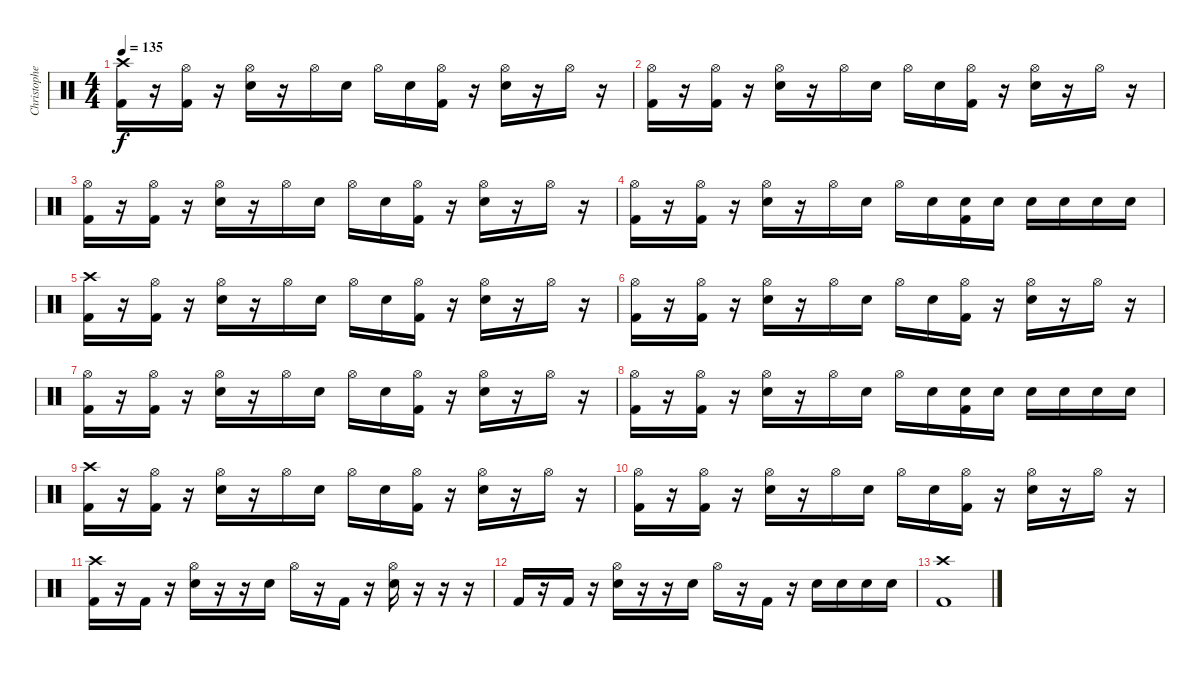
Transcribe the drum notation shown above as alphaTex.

\track ("Christopher - Drums" "Christophe") {instrument percussion}
\staff {score}
\articulation defaults
\ts (4 4)
\tempo 135
\clef neutral
\ks c
("Crash high (hit)" "Kick (hit) 2").16{dy f} r.16 ("Hi-Hat (open)" "Kick (hit) 2").16 r.16 ("Hi-Hat (open)" "Electric Snare (hit)").16 r.16 "Hi-Hat (open)".16 "Electric Snare (hit)".16 "Hi-Hat (open)".16 "Electric Snare (hit)".16 ("Hi-Hat (open)" "Kick (hit) 2").16 r.16 ("Hi-Hat (open)" "Electric Snare (hit)").16 r.16 "Hi-Hat (open)".16 r.16 |
("Hi-Hat (open)" "Kick (hit) 2").16 r.16 ("Hi-Hat (open)" "Kick (hit) 2").16 r.16 ("Hi-Hat (open)" "Electric Snare (hit)").16 r.16 "Hi-Hat (open)".16 "Electric Snare (hit)".16 "Hi-Hat (open)".16 "Electric Snare (hit)".16 ("Hi-Hat (open)" "Kick (hit) 2").16 r.16 ("Hi-Hat (open)" "Electric Snare (hit)").16 r.16 "Hi-Hat (open)".16 r.16 |
("Hi-Hat (open)" "Kick (hit) 2").16 r.16 ("Hi-Hat (open)" "Kick (hit) 2").16 r.16 ("Hi-Hat (open)" "Electric Snare (hit)").16 r.16 "Hi-Hat (open)".16 "Electric Snare (hit)".16 "Hi-Hat (open)".16 "Electric Snare (hit)".16 ("Hi-Hat (open)" "Kick (hit) 2").16 r.16 ("Hi-Hat (open)" "Electric Snare (hit)").16 r.16 "Hi-Hat (open)".16 r.16 |
("Hi-Hat (open)" "Kick (hit) 2").16 r.16 ("Hi-Hat (open)" "Kick (hit) 2").16 r.16 ("Hi-Hat (open)" "Electric Snare (hit)").16 r.16 "Hi-Hat (open)".16 "Electric Snare (hit)".16 "Hi-Hat (open)".16 "Electric Snare (hit)".16 ("Electric Snare (hit)" "Kick (hit) 2").16 "Electric Snare (hit)".16 "Electric Snare (hit)".16 "Electric Snare (hit)".16 "Electric Snare (hit)".16 "Electric Snare (hit)".16 |
("Crash high (hit)" "Kick (hit) 2").16 r.16 ("Hi-Hat (open)" "Kick (hit) 2").16 r.16 ("Hi-Hat (open)" "Electric Snare (hit)").16 r.16 "Hi-Hat (open)".16 "Electric Snare (hit)".16 "Hi-Hat (open)".16 "Electric Snare (hit)".16 ("Hi-Hat (open)" "Kick (hit) 2").16 r.16 ("Hi-Hat (open)" "Electric Snare (hit)").16 r.16 "Hi-Hat (open)".16 r.16 |
("Hi-Hat (open)" "Kick (hit) 2").16 r.16 ("Hi-Hat (open)" "Kick (hit) 2").16 r.16 ("Hi-Hat (open)" "Electric Snare (hit)").16 r.16 "Hi-Hat (open)".16 "Electric Snare (hit)".16 "Hi-Hat (open)".16 "Electric Snare (hit)".16 ("Hi-Hat (open)" "Kick (hit) 2").16 r.16 ("Hi-Hat (open)" "Electric Snare (hit)").16 r.16 "Hi-Hat (open)".16 r.16 |
("Hi-Hat (open)" "Kick (hit) 2").16 r.16 ("Hi-Hat (open)" "Kick (hit) 2").16 r.16 ("Hi-Hat (open)" "Electric Snare (hit)").16 r.16 "Hi-Hat (open)".16 "Electric Snare (hit)".16 "Hi-Hat (open)".16 "Electric Snare (hit)".16 ("Hi-Hat (open)" "Kick (hit) 2").16 r.16 ("Hi-Hat (open)" "Electric Snare (hit)").16 r.16 "Hi-Hat (open)".16 r.16 |
("Hi-Hat (open)" "Kick (hit) 2").16 r.16 ("Hi-Hat (open)" "Kick (hit) 2").16 r.16 ("Hi-Hat (open)" "Electric Snare (hit)").16 r.16 "Hi-Hat (open)".16 "Electric Snare (hit)".16 "Hi-Hat (open)".16 "Electric Snare (hit)".16 ("Electric Snare (hit)" "Kick (hit) 2").16 "Electric Snare (hit)".16 "Electric Snare (hit)".16 "Electric Snare (hit)".16 "Electric Snare (hit)".16 "Electric Snare (hit)".16 |
("Crash high (hit)" "Kick (hit) 2").16 r.16 ("Hi-Hat (open)" "Kick (hit) 2").16 r.16 ("Hi-Hat (open)" "Electric Snare (hit)").16 r.16 "Hi-Hat (open)".16 "Electric Snare (hit)".16 "Hi-Hat (open)".16 "Electric Snare (hit)".16 ("Hi-Hat (open)" "Kick (hit) 2").16 r.16 ("Hi-Hat (open)" "Electric Snare (hit)").16 r.16 "Hi-Hat (open)".16 r.16 |
("Hi-Hat (open)" "Kick (hit) 2").16 r.16 ("Hi-Hat (open)" "Kick (hit) 2").16 r.16 ("Hi-Hat (open)" "Electric Snare (hit)").16 r.16 "Hi-Hat (open)".16 "Electric Snare (hit)".16 "Hi-Hat (open)".16 "Electric Snare (hit)".16 ("Hi-Hat (open)" "Kick (hit) 2").16 r.16 ("Hi-Hat (open)" "Electric Snare (hit)").16 r.16 "Hi-Hat (open)".16 r.16 |
("Crash high (hit)" "Kick (hit) 2").16 r.16 "Kick (hit) 2".16 r.16 ("Hi-Hat (open)" "Electric Snare (hit)").16 r.16 r.16 "Electric Snare (hit)".16 "Hi-Hat (open)".16 r.16 "Kick (hit) 2".16 r.16 ("Hi-Hat (open)" "Electric Snare (hit)").16 r.16 r.16 r.16 |
"Kick (hit) 2".16 r.16 "Kick (hit) 2".16 r.16 ("Hi-Hat (open)" "Electric Snare (hit)").16 r.16 r.16 "Electric Snare (hit)".16 "Hi-Hat (open)".16 r.16 "Kick (hit) 2".16 r.16 "Electric Snare (hit)".16 "Electric Snare (hit)".16 "Electric Snare (hit)".16 "Electric Snare (hit)".16 |
("Crash high (hit)" "Kick (hit) 2").1
